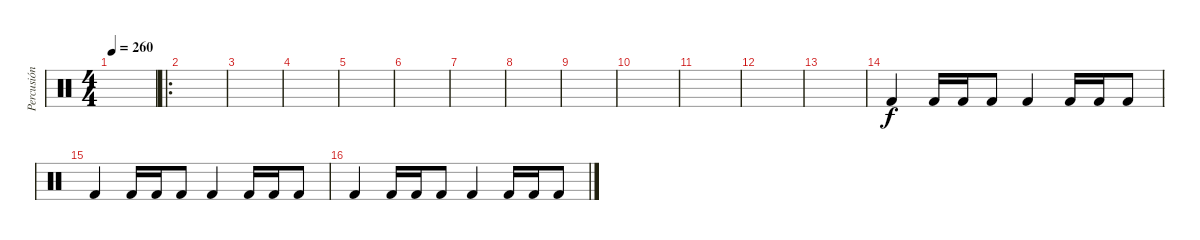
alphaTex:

\track ("Percusión" "Percusión") {instrument percussion}
\staff {score}
\articulation defaults
\ts (4 4)
\tempo 260
\clef neutral
\ks c
|
\ro
|
|
|
|
|
|
|
|
|
|
|
|
"Kick (hit) 2".4 "Kick (hit) 2".16 "Kick (hit) 2".16 "Kick (hit) 2".8 "Kick (hit) 2".4 "Kick (hit) 2".16 "Kick (hit) 2".16 "Kick (hit) 2".8 |
"Kick (hit) 2".4 "Kick (hit) 2".16 "Kick (hit) 2".16 "Kick (hit) 2".8 "Kick (hit) 2".4 "Kick (hit) 2".16 "Kick (hit) 2".16 "Kick (hit) 2".8 |
"Kick (hit) 2".4 "Kick (hit) 2".16 "Kick (hit) 2".16 "Kick (hit) 2".8 "Kick (hit) 2".4 "Kick (hit) 2".16 "Kick (hit) 2".16 "Kick (hit) 2".8
